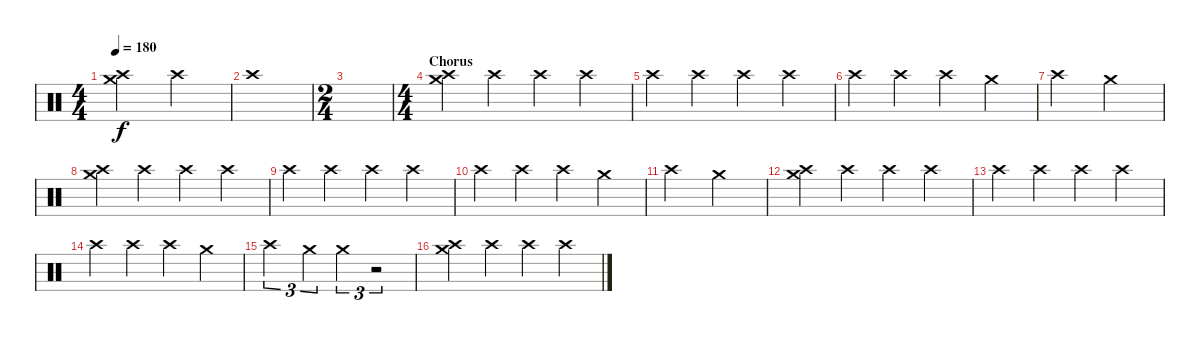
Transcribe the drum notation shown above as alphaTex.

\track "" {instrument percussion}
\staff {score}
\articulation defaults
\ts (4 4)
\tempo 180
\clef neutral
\ks c
("Crash high (hit)" "Crash medium (hit)").2{dy f} "Crash high (hit)".2 |
"Crash high (hit)".1 |
\ts (2 4)
|
\ts (4 4)
\section ("" "Chorus")
("Crash medium (hit)" "Crash high (hit)").4 "Crash high (hit)".4 "Crash high (hit)".4 "Crash high (hit)".4 |
"Crash high (hit)".4 "Crash high (hit)".4 "Crash high (hit)".4 "Crash high (hit)".4 |
"Crash high (hit)".4 "Crash high (hit)".4 "Crash high (hit)".4 "Crash medium (hit)".4 |
"Crash high (hit)".2 "Crash medium (hit)".2 |
("Crash medium (hit)" "Crash high (hit)").4 "Crash high (hit)".4 "Crash high (hit)".4 "Crash high (hit)".4 |
"Crash high (hit)".4 "Crash high (hit)".4 "Crash high (hit)".4 "Crash high (hit)".4 |
"Crash high (hit)".4 "Crash high (hit)".4 "Crash high (hit)".4 "Crash medium (hit)".4 |
"Crash high (hit)".2 "Crash medium (hit)".2 |
("Crash medium (hit)" "Crash high (hit)").4 "Crash high (hit)".4 "Crash high (hit)".4 "Crash high (hit)".4 |
"Crash high (hit)".4 "Crash high (hit)".4 "Crash high (hit)".4 "Crash high (hit)".4 |
"Crash high (hit)".4 "Crash high (hit)".4 "Crash high (hit)".4 "Crash medium (hit)".4 |
"Crash high (hit)".2{tu (3 2)} "Crash medium (hit)".4{tu (3 2)} "Crash medium (hit)".4{tu (3 2)} r.2{tu (3 2)} |
("Crash medium (hit)" "Crash high (hit)").4 "Crash high (hit)".4 "Crash high (hit)".4 "Crash high (hit)".4
